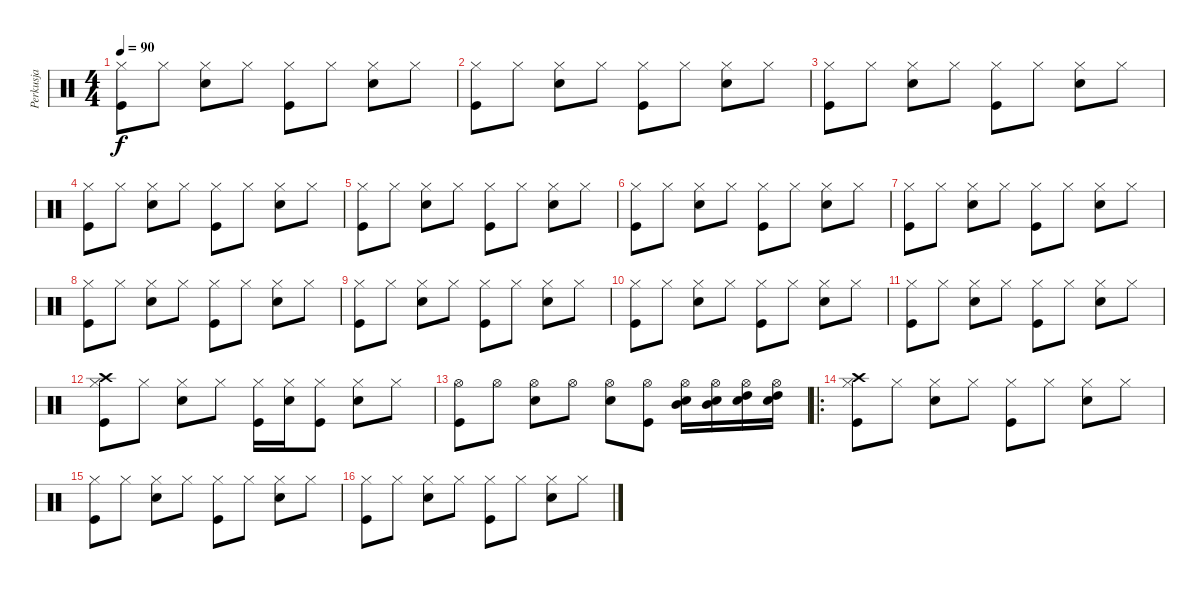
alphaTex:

\track ("Perkusja" "Perkusja") {instrument percussion}
\staff {score}
\articulation defaults
\ts (4 4)
\tempo 90
\clef neutral
\ks c
("Hi-Hat (closed)" "Kick (hit)").8{dy f} "Hi-Hat (closed)".8 ("Hi-Hat (closed)" "Electric Snare (hit)").8 "Hi-Hat (closed)".8 ("Hi-Hat (closed)" "Kick (hit)").8 "Hi-Hat (closed)".8 ("Hi-Hat (closed)" "Electric Snare (hit)").8 "Hi-Hat (closed)".8 |
("Hi-Hat (closed)" "Kick (hit)").8 "Hi-Hat (closed)".8 ("Hi-Hat (closed)" "Electric Snare (hit)").8 "Hi-Hat (closed)".8 ("Hi-Hat (closed)" "Kick (hit)").8 "Hi-Hat (closed)".8 ("Hi-Hat (closed)" "Electric Snare (hit)").8 "Hi-Hat (closed)".8 |
("Hi-Hat (closed)" "Kick (hit)").8 "Hi-Hat (closed)".8 ("Hi-Hat (closed)" "Electric Snare (hit)").8 "Hi-Hat (closed)".8 ("Hi-Hat (closed)" "Kick (hit)").8 "Hi-Hat (closed)".8 ("Hi-Hat (closed)" "Electric Snare (hit)").8 "Hi-Hat (closed)".8 |
("Hi-Hat (closed)" "Kick (hit)").8 "Hi-Hat (closed)".8 ("Hi-Hat (closed)" "Electric Snare (hit)").8 "Hi-Hat (closed)".8 ("Hi-Hat (closed)" "Kick (hit)").8 "Hi-Hat (closed)".8 ("Hi-Hat (closed)" "Electric Snare (hit)").8 "Hi-Hat (closed)".8 |
("Hi-Hat (closed)" "Kick (hit)").8 "Hi-Hat (closed)".8 ("Hi-Hat (closed)" "Electric Snare (hit)").8 "Hi-Hat (closed)".8 ("Hi-Hat (closed)" "Kick (hit)").8 "Hi-Hat (closed)".8 ("Hi-Hat (closed)" "Electric Snare (hit)").8 "Hi-Hat (closed)".8 |
("Hi-Hat (closed)" "Kick (hit)").8 "Hi-Hat (closed)".8 ("Hi-Hat (closed)" "Electric Snare (hit)").8 "Hi-Hat (closed)".8 ("Hi-Hat (closed)" "Kick (hit)").8 "Hi-Hat (closed)".8 ("Hi-Hat (closed)" "Electric Snare (hit)").8 "Hi-Hat (closed)".8 |
("Hi-Hat (closed)" "Kick (hit)").8 "Hi-Hat (closed)".8 ("Hi-Hat (closed)" "Electric Snare (hit)").8 "Hi-Hat (closed)".8 ("Hi-Hat (closed)" "Kick (hit)").8 "Hi-Hat (closed)".8 ("Hi-Hat (closed)" "Electric Snare (hit)").8 "Hi-Hat (closed)".8 |
("Hi-Hat (closed)" "Kick (hit)").8 "Hi-Hat (closed)".8 ("Hi-Hat (closed)" "Electric Snare (hit)").8 "Hi-Hat (closed)".8 ("Hi-Hat (closed)" "Kick (hit)").8 "Hi-Hat (closed)".8 ("Hi-Hat (closed)" "Electric Snare (hit)").8 "Hi-Hat (closed)".8 |
("Hi-Hat (closed)" "Kick (hit)").8 "Hi-Hat (closed)".8 ("Hi-Hat (closed)" "Electric Snare (hit)").8 "Hi-Hat (closed)".8 ("Hi-Hat (closed)" "Kick (hit)").8 "Hi-Hat (closed)".8 ("Hi-Hat (closed)" "Electric Snare (hit)").8 "Hi-Hat (closed)".8 |
("Hi-Hat (closed)" "Kick (hit)").8 "Hi-Hat (closed)".8 ("Hi-Hat (closed)" "Electric Snare (hit)").8 "Hi-Hat (closed)".8 ("Hi-Hat (closed)" "Kick (hit)").8 "Hi-Hat (closed)".8 ("Hi-Hat (closed)" "Electric Snare (hit)").8 "Hi-Hat (closed)".8 |
("Hi-Hat (closed)" "Kick (hit)").8 "Hi-Hat (closed)".8 ("Hi-Hat (closed)" "Electric Snare (hit)").8 "Hi-Hat (closed)".8 ("Hi-Hat (closed)" "Kick (hit)").8 "Hi-Hat (closed)".8 ("Hi-Hat (closed)" "Electric Snare (hit)").8 "Hi-Hat (closed)".8 |
("Hi-Hat (closed)" "Crash high (hit)" "Kick (hit)").8 "Hi-Hat (closed)".8 ("Hi-Hat (closed)" "Electric Snare (hit)").8 "Hi-Hat (closed)".8 ("Hi-Hat (closed)" "Kick (hit)").16 ("Hi-Hat (closed)" "Electric Snare (hit)").16 ("Hi-Hat (closed)" "Kick (hit)").8 ("Hi-Hat (closed)" "Electric Snare (hit)").8 "Hi-Hat (closed)".8 |
("Hi-Hat (open)" "Kick (hit)").8 "Hi-Hat (open)".8 ("Hi-Hat (open)" "Electric Snare (hit)").8 "Hi-Hat (open)".8 ("Hi-Hat (open)" "Electric Snare (hit)").8 ("Hi-Hat (open)" "Kick (hit)").8 ("Hi-Hat (open)" "Mid Tom (hit)" "Electric Snare (hit)").16 ("Hi-Hat (open)" "Mid Tom (hit)" "Electric Snare (hit)").16 ("Hi-Hat (open)" "High Tom (hit)" "Electric Snare (hit)").16 ("Hi-Hat (open)" "High Tom (hit)" "Electric Snare (hit)").16 |
\ro
("Hi-Hat (closed)" "Crash high (hit)" "Kick (hit)").8 "Hi-Hat (closed)".8 ("Hi-Hat (closed)" "Electric Snare (hit)").8 "Hi-Hat (closed)".8 ("Hi-Hat (closed)" "Kick (hit)").8 "Hi-Hat (closed)".8 ("Hi-Hat (closed)" "Electric Snare (hit)").8 "Hi-Hat (closed)".8 |
("Hi-Hat (closed)" "Kick (hit)").8 "Hi-Hat (closed)".8 ("Hi-Hat (closed)" "Electric Snare (hit)").8 "Hi-Hat (closed)".8 ("Hi-Hat (closed)" "Kick (hit)").8 "Hi-Hat (closed)".8 ("Hi-Hat (closed)" "Electric Snare (hit)").8 "Hi-Hat (closed)".8 |
("Hi-Hat (closed)" "Kick (hit)").8 "Hi-Hat (closed)".8 ("Hi-Hat (closed)" "Electric Snare (hit)").8 "Hi-Hat (closed)".8 ("Hi-Hat (closed)" "Kick (hit)").8 "Hi-Hat (closed)".8 ("Hi-Hat (closed)" "Electric Snare (hit)").8 "Hi-Hat (closed)".8
